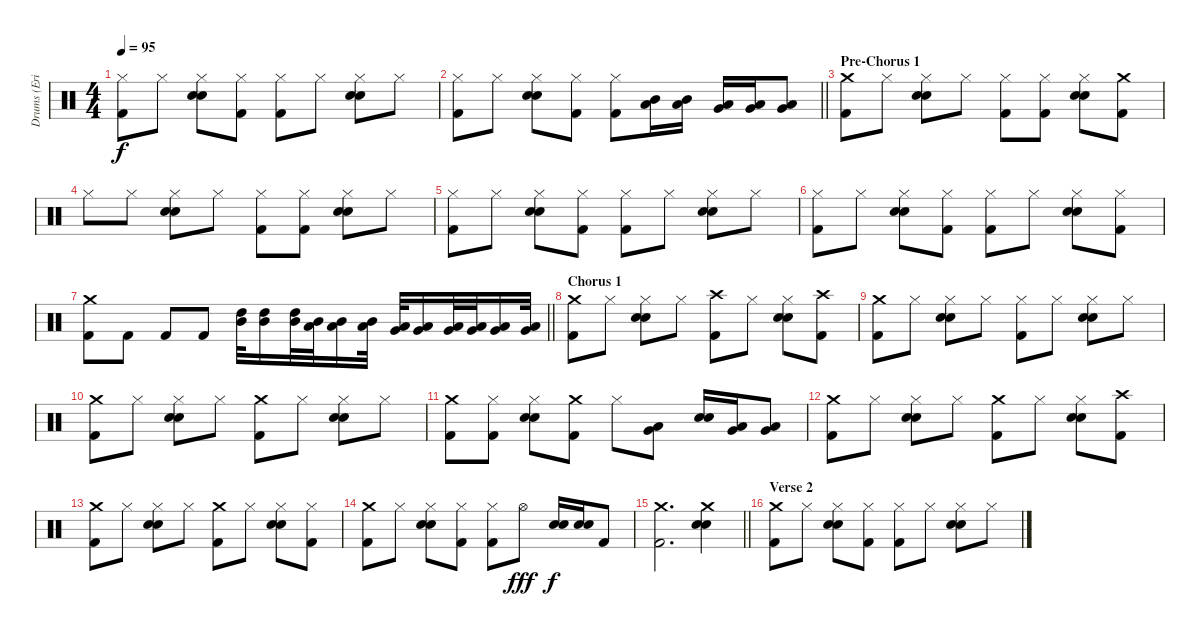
\track ("Drums (Eric Carr)" "Drums (Eri") {instrument percussion}
\staff {score}
\articulation defaults
\ts (4 4)
\tempo 95
\clef neutral
\ks c
("Hi-Hat (closed)" "Kick (hit) 2").8{dy f} "Hi-Hat (closed)".8 ("Hi-Hat (closed)" "Electric Snare (hit)" "Snare (hit) 2").8 ("Hi-Hat (closed)" "Kick (hit) 2").8 ("Hi-Hat (closed)" "Kick (hit) 2").8 "Hi-Hat (closed)".8 ("Hi-Hat (closed)" "Electric Snare (hit)" "Snare (hit) 2").8 "Hi-Hat (closed)".8 |
\barLineRight lightlight
("Hi-Hat (closed)" "Kick (hit) 2").8 "Hi-Hat (closed)".8 ("Hi-Hat (closed)" "Electric Snare (hit)" "Snare (hit) 2").8 ("Hi-Hat (closed)" "Kick (hit) 2").8 ("Hi-Hat (closed)" "Kick (hit) 2").8 ("Mid Tom (hit)" "Low Tom (hit)").16 ("Mid Tom (hit)" "Low Tom (hit)").16 ("Low Tom (hit)" "Very Low Tom (hit)").16 ("Low Tom (hit)" "Very Low Tom (hit)").16 ("Very Low Tom (hit)" "Low Floor Tom (hit)").8 |
\section ("" "Pre-Chorus 1")
("Crash medium (hit)" "Kick (hit) 2").8 "Hi-Hat (closed)".8 ("Hi-Hat (closed)" "Electric Snare (hit)" "Snare (hit) 2").8 "Hi-Hat (closed)".8 ("Hi-Hat (closed)" "Kick (hit) 2").8 ("Kick (hit) 2" "Hi-Hat (closed)").8 ("Hi-Hat (closed)" "Electric Snare (hit)" "Snare (hit) 2").8 ("Kick (hit) 2" "Crash medium (hit)").8 |
"Hi-Hat (closed)".8 "Hi-Hat (closed)".8 ("Hi-Hat (closed)" "Electric Snare (hit)" "Snare (hit) 2").8 "Hi-Hat (closed)".8 ("Hi-Hat (closed)" "Kick (hit) 2").8 ("Kick (hit) 2" "Hi-Hat (closed)").8 ("Hi-Hat (closed)" "Electric Snare (hit)" "Snare (hit) 2").8 "Hi-Hat (closed)".8 |
("Hi-Hat (closed)" "Kick (hit) 2").8 "Hi-Hat (closed)".8 ("Hi-Hat (closed)" "Electric Snare (hit)" "Snare (hit) 2").8 ("Hi-Hat (closed)" "Kick (hit) 2").8 ("Hi-Hat (closed)" "Kick (hit) 2").8 "Hi-Hat (closed)".8 ("Hi-Hat (closed)" "Electric Snare (hit)" "Snare (hit) 2").8 "Hi-Hat (closed)".8 |
("Hi-Hat (closed)" "Kick (hit) 2").8 "Hi-Hat (closed)".8 ("Hi-Hat (closed)" "Electric Snare (hit)" "Snare (hit) 2").8 ("Hi-Hat (closed)" "Kick (hit) 2").8 ("Hi-Hat (closed)" "Kick (hit) 2").8 "Hi-Hat (closed)".8 ("Hi-Hat (closed)" "Electric Snare (hit)" "Snare (hit) 2").8 ("Kick (hit) 2" "Hi-Hat (closed)").8 |
\barLineRight lightlight
("Crash medium (hit)" "Kick (hit) 2").8 "Kick (hit) 2".8 "Kick (hit) 2".8 "Kick (hit) 2".8 ("High Tom (hit)" "Mid Tom (hit)").32 ("High Tom (hit)" "Mid Tom (hit)").16 ("High Tom (hit)" "Mid Tom (hit)").32 ("Low Tom (hit)" "Mid Tom (hit)").32 ("Low Tom (hit)" "Mid Tom (hit)").16 ("Low Tom (hit)" "Mid Tom (hit)").32 ("Very Low Tom (hit)" "Low Tom (hit)").32 ("Very Low Tom (hit)" "Low Tom (hit)").16 ("Very Low Tom (hit)" "Low Tom (hit)").32 ("Low Tom (hit)" "Very Low Tom (hit)").32 ("Low Tom (hit)" "Very Low Tom (hit)").16 ("Low Tom (hit)" "Very Low Tom (hit)").32 |
\section ("" "Chorus 1")
("Crash medium (hit)" "Kick (hit) 2").8 "Hi-Hat (closed)".8 ("Hi-Hat (closed)" "Electric Snare (hit)" "Snare (hit) 2").8 "Hi-Hat (closed)".8 ("Crash high (hit)" "Kick (hit) 2").8 "Hi-Hat (closed)".8 ("Hi-Hat (closed)" "Electric Snare (hit)" "Snare (hit) 2").8 ("Kick (hit) 2" "Crash high (hit)").8 |
("Crash medium (hit)" "Kick (hit) 2").8 "Hi-Hat (closed)".8 ("Hi-Hat (closed)" "Electric Snare (hit)" "Snare (hit) 2").8 "Hi-Hat (closed)".8 ("Hi-Hat (closed)" "Kick (hit) 2").8 "Hi-Hat (closed)".8 ("Hi-Hat (closed)" "Electric Snare (hit)" "Snare (hit) 2").8 "Hi-Hat (closed)".8 |
("Crash medium (hit)" "Kick (hit) 2").8 "Hi-Hat (closed)".8 ("Hi-Hat (closed)" "Electric Snare (hit)" "Snare (hit) 2").8 "Hi-Hat (closed)".8 ("Crash medium (hit)" "Kick (hit) 2").8 "Hi-Hat (closed)".8 ("Hi-Hat (closed)" "Electric Snare (hit)" "Snare (hit) 2").8 "Hi-Hat (closed)".8 |
("Crash medium (hit)" "Kick (hit) 2").8 ("Kick (hit) 2" "Hi-Hat (closed)").8 ("Hi-Hat (closed)" "Electric Snare (hit)" "Snare (hit) 2").8 ("Crash medium (hit)" "Kick (hit) 2").8 "Hi-Hat (closed)".8 ("Low Tom (hit)" "Very Low Tom (hit)").8 ("Snare (hit) 2" "Electric Snare (hit)").16 ("Very Low Tom (hit)" "Low Tom (hit)").16 ("Very Low Tom (hit)" "Low Tom (hit)").8 |
("Crash medium (hit)" "Kick (hit) 2").8 "Hi-Hat (closed)".8 ("Hi-Hat (closed)" "Electric Snare (hit)" "Snare (hit) 2").8 "Hi-Hat (closed)".8 ("Crash medium (hit)" "Kick (hit) 2").8 "Hi-Hat (closed)".8 ("Hi-Hat (closed)" "Electric Snare (hit)" "Snare (hit) 2").8 ("Kick (hit) 2" "Crash high (hit)").8 |
("Crash medium (hit)" "Kick (hit) 2").8 "Hi-Hat (closed)".8 ("Hi-Hat (closed)" "Electric Snare (hit)" "Snare (hit) 2").8 "Hi-Hat (closed)".8 ("Crash medium (hit)" "Kick (hit) 2").8 "Hi-Hat (closed)".8 ("Hi-Hat (closed)" "Electric Snare (hit)" "Snare (hit) 2").8 ("Kick (hit) 2" "Hi-Hat (closed)").8 |
("Crash medium (hit)" "Kick (hit) 2").8 "Hi-Hat (closed)".8 ("Hi-Hat (closed)" "Electric Snare (hit)" "Snare (hit) 2").8 ("Hi-Hat (closed)" "Kick (hit) 2").8 ("Hi-Hat (closed)" "Kick (hit) 2").8 "Hi-Hat (open)".8{dy fff} ("Electric Snare (hit)" "Snare (hit) 2").16{dy f} ("Electric Snare (hit)" "Snare (hit) 2").16 "Kick (hit) 2".8 |
\barLineRight lightlight
("Crash medium (hit)" "Kick (hit) 2").2{d} ("Snare (hit) 2" "Crash medium (hit)" "Electric Snare (hit)").4 |
\section ("" "Verse 2")
("Crash medium (hit)" "Kick (hit) 2").8 "Hi-Hat (closed)".8 ("Hi-Hat (closed)" "Electric Snare (hit)" "Snare (hit) 2").8 ("Hi-Hat (closed)" "Kick (hit) 2").8 ("Hi-Hat (closed)" "Kick (hit) 2").8 "Hi-Hat (closed)".8 ("Hi-Hat (closed)" "Electric Snare (hit)" "Snare (hit) 2").8 "Hi-Hat (closed)".8
